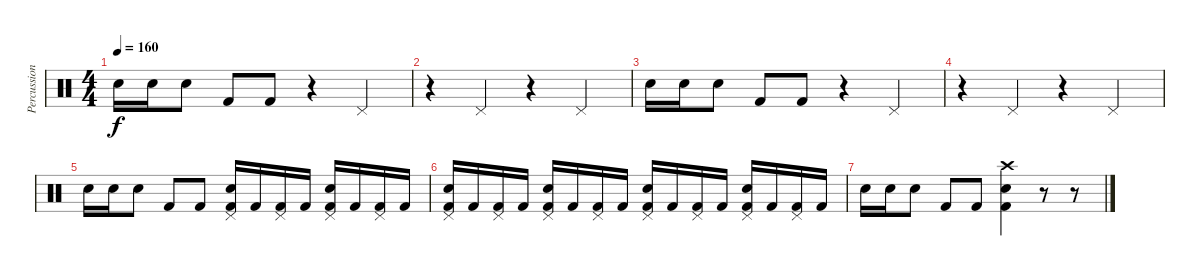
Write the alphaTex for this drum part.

\track ("Percussion" "Percussion") {instrument percussion}
\staff {score}
\articulation defaults
\ts (4 4)
\tempo 160
\clef neutral
\ks c "Snare (hit) 2".16{dy f} "Snare (hit) 2".16 "Snare (hit) 2".8 "Kick (hit) 2".8 "Kick (hit) 2".8
r.4 "Pedal Hi-Hat (hit)".4 |
r.4 "Pedal Hi-Hat (hit)".4 r.4 "Pedal Hi-Hat (hit)".4 |
"Snare (hit) 2".16 "Snare (hit) 2".16 "Snare (hit) 2".8 "Kick (hit) 2".8 "Kick (hit) 2".8 r.4 "Pedal Hi-Hat (hit)".4 |
r.4 "Pedal Hi-Hat (hit)".4 r.4 "Pedal Hi-Hat (hit)".4 |
"Snare (hit) 2".16 "Snare (hit) 2".16 "Snare (hit) 2".8 "Kick (hit) 2".8 "Kick (hit) 2".8 ("Pedal Hi-Hat (hit)" "Snare (hit) 2" "Kick (hit) 2").16 "Kick (hit) 2".16 ("Pedal Hi-Hat (hit)" "Kick (hit) 2").16 "Kick (hit) 2".16 ("Pedal Hi-Hat (hit)" "Snare (hit) 2" "Kick (hit) 2").16 "Kick (hit) 2".16 ("Pedal Hi-Hat (hit)" "Kick (hit) 2").16 "Kick (hit) 2".16 |
("Pedal Hi-Hat (hit)" "Snare (hit) 2" "Kick (hit) 2").16 "Kick (hit) 2".16 ("Pedal Hi-Hat (hit)" "Kick (hit) 2").16 "Kick (hit) 2".16 ("Pedal Hi-Hat (hit)" "Snare (hit) 2" "Kick (hit) 2").16 "Kick (hit) 2".16 ("Pedal Hi-Hat (hit)" "Kick (hit) 2").16 "Kick (hit) 2".16 ("Pedal Hi-Hat (hit)" "Snare (hit) 2" "Kick (hit) 2").16 "Kick (hit) 2".16 ("Pedal Hi-Hat (hit)" "Kick (hit) 2").16 "Kick (hit) 2".16 ("Pedal Hi-Hat (hit)" "Snare (hit) 2" "Kick (hit) 2").16 "Kick (hit) 2".16 ("Pedal Hi-Hat (hit)" "Kick (hit) 2").16 "Kick (hit) 2".16 |
"Snare (hit) 2".16 "Snare (hit) 2".16 "Snare (hit) 2".8 "Kick (hit) 2".8 "Kick (hit) 2".8 ("Crash high (hit)" "Snare (hit) 2" "Kick (hit) 2").4 r.8 r.8
